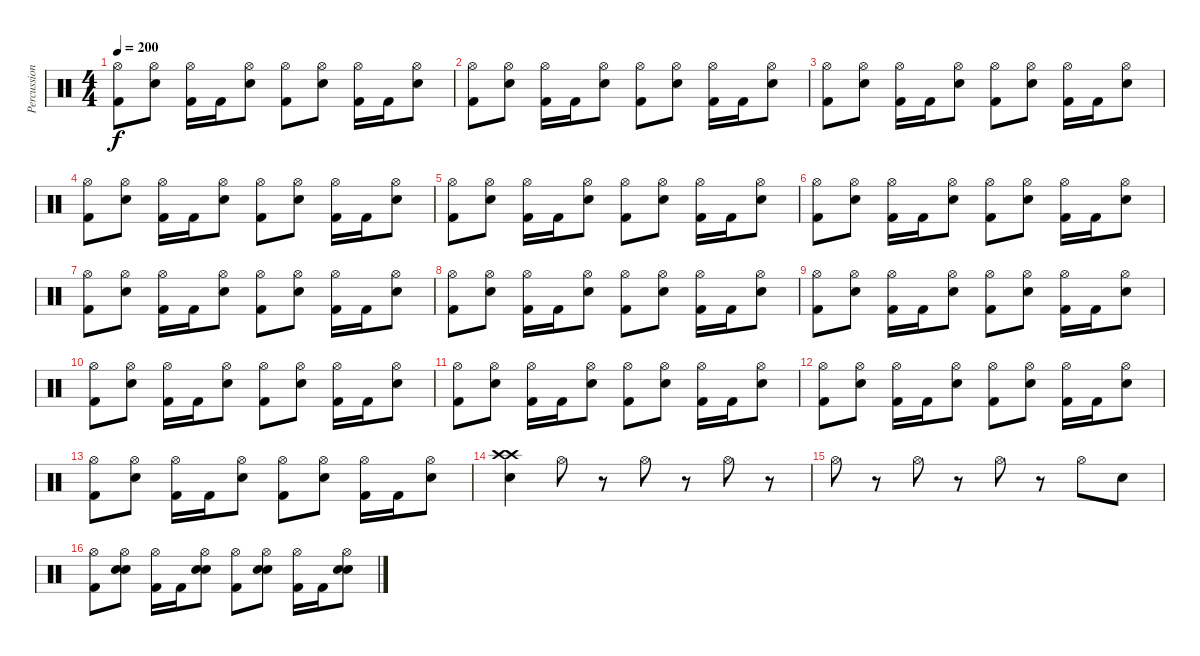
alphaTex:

\track ("Percussion" "Percussion") {instrument percussion}
\staff {score}
\articulation defaults
\ts (4 4)
\tempo 200
\clef neutral
\ks c
("Hi-Hat (open)" "Kick (hit) 2").8{dy f} ("Hi-Hat (open)" "Electric Snare (hit)").8 ("Hi-Hat (open)" "Kick (hit) 2").16 "Kick (hit) 2".16 ("Hi-Hat (open)" "Electric Snare (hit)").8 ("Hi-Hat (open)" "Kick (hit) 2").8 ("Hi-Hat (open)" "Electric Snare (hit)").8 ("Hi-Hat (open)" "Kick (hit) 2").16 "Kick (hit) 2".16 ("Hi-Hat (open)" "Electric Snare (hit)").8 |
("Hi-Hat (open)" "Kick (hit) 2").8 ("Hi-Hat (open)" "Electric Snare (hit)").8 ("Hi-Hat (open)" "Kick (hit) 2").16 "Kick (hit) 2".16 ("Hi-Hat (open)" "Electric Snare (hit)").8 ("Hi-Hat (open)" "Kick (hit) 2").8 ("Hi-Hat (open)" "Electric Snare (hit)").8 ("Hi-Hat (open)" "Kick (hit) 2").16 "Kick (hit) 2".16 ("Hi-Hat (open)" "Electric Snare (hit)").8 |
("Hi-Hat (open)" "Kick (hit) 2").8 ("Hi-Hat (open)" "Electric Snare (hit)").8 ("Hi-Hat (open)" "Kick (hit) 2").16 "Kick (hit) 2".16 ("Hi-Hat (open)" "Electric Snare (hit)").8 ("Hi-Hat (open)" "Kick (hit) 2").8 ("Hi-Hat (open)" "Electric Snare (hit)").8 ("Hi-Hat (open)" "Kick (hit) 2").16 "Kick (hit) 2".16 ("Hi-Hat (open)" "Electric Snare (hit)").8 |
("Hi-Hat (open)" "Kick (hit) 2").8 ("Hi-Hat (open)" "Electric Snare (hit)").8 ("Hi-Hat (open)" "Kick (hit) 2").16 "Kick (hit) 2".16 ("Hi-Hat (open)" "Electric Snare (hit)").8 ("Hi-Hat (open)" "Kick (hit) 2").8 ("Hi-Hat (open)" "Electric Snare (hit)").8 ("Hi-Hat (open)" "Kick (hit) 2").16 "Kick (hit) 2".16 ("Hi-Hat (open)" "Electric Snare (hit)").8 |
("Hi-Hat (open)" "Kick (hit) 2").8 ("Hi-Hat (open)" "Electric Snare (hit)").8 ("Hi-Hat (open)" "Kick (hit) 2").16 "Kick (hit) 2".16 ("Hi-Hat (open)" "Electric Snare (hit)").8 ("Hi-Hat (open)" "Kick (hit) 2").8 ("Hi-Hat (open)" "Electric Snare (hit)").8 ("Hi-Hat (open)" "Kick (hit) 2").16 "Kick (hit) 2".16 ("Hi-Hat (open)" "Electric Snare (hit)").8 |
("Hi-Hat (open)" "Kick (hit) 2").8 ("Hi-Hat (open)" "Electric Snare (hit)").8 ("Hi-Hat (open)" "Kick (hit) 2").16 "Kick (hit) 2".16 ("Hi-Hat (open)" "Electric Snare (hit)").8 ("Hi-Hat (open)" "Kick (hit) 2").8 ("Hi-Hat (open)" "Electric Snare (hit)").8 ("Hi-Hat (open)" "Kick (hit) 2").16 "Kick (hit) 2".16 ("Hi-Hat (open)" "Electric Snare (hit)").8 |
("Hi-Hat (open)" "Kick (hit) 2").8 ("Hi-Hat (open)" "Electric Snare (hit)").8 ("Hi-Hat (open)" "Kick (hit) 2").16 "Kick (hit) 2".16 ("Hi-Hat (open)" "Electric Snare (hit)").8 ("Hi-Hat (open)" "Kick (hit) 2").8 ("Hi-Hat (open)" "Electric Snare (hit)").8 ("Hi-Hat (open)" "Kick (hit) 2").16 "Kick (hit) 2".16 ("Hi-Hat (open)" "Electric Snare (hit)").8 |
("Hi-Hat (open)" "Kick (hit) 2").8 ("Hi-Hat (open)" "Electric Snare (hit)").8 ("Hi-Hat (open)" "Kick (hit) 2").16 "Kick (hit) 2".16 ("Hi-Hat (open)" "Electric Snare (hit)").8 ("Hi-Hat (open)" "Kick (hit) 2").8 ("Hi-Hat (open)" "Electric Snare (hit)").8 ("Hi-Hat (open)" "Kick (hit) 2").16 "Kick (hit) 2".16 ("Hi-Hat (open)" "Electric Snare (hit)").8 |
("Hi-Hat (open)" "Kick (hit) 2").8 ("Hi-Hat (open)" "Electric Snare (hit)").8 ("Hi-Hat (open)" "Kick (hit) 2").16 "Kick (hit) 2".16 ("Hi-Hat (open)" "Electric Snare (hit)").8 ("Hi-Hat (open)" "Kick (hit) 2").8 ("Hi-Hat (open)" "Electric Snare (hit)").8 ("Hi-Hat (open)" "Kick (hit) 2").16 "Kick (hit) 2".16 ("Hi-Hat (open)" "Electric Snare (hit)").8 |
("Hi-Hat (open)" "Kick (hit) 2").8 ("Hi-Hat (open)" "Electric Snare (hit)").8 ("Hi-Hat (open)" "Kick (hit) 2").16 "Kick (hit) 2".16 ("Hi-Hat (open)" "Electric Snare (hit)").8 ("Hi-Hat (open)" "Kick (hit) 2").8 ("Hi-Hat (open)" "Electric Snare (hit)").8 ("Hi-Hat (open)" "Kick (hit) 2").16 "Kick (hit) 2".16 ("Hi-Hat (open)" "Electric Snare (hit)").8 |
("Hi-Hat (open)" "Kick (hit) 2").8 ("Hi-Hat (open)" "Electric Snare (hit)").8 ("Hi-Hat (open)" "Kick (hit) 2").16 "Kick (hit) 2".16 ("Hi-Hat (open)" "Electric Snare (hit)").8 ("Hi-Hat (open)" "Kick (hit) 2").8 ("Hi-Hat (open)" "Electric Snare (hit)").8 ("Hi-Hat (open)" "Kick (hit) 2").16 "Kick (hit) 2".16 ("Hi-Hat (open)" "Electric Snare (hit)").8 |
("Hi-Hat (open)" "Kick (hit) 2").8 ("Hi-Hat (open)" "Electric Snare (hit)").8 ("Hi-Hat (open)" "Kick (hit) 2").16 "Kick (hit) 2".16 ("Hi-Hat (open)" "Electric Snare (hit)").8 ("Hi-Hat (open)" "Kick (hit) 2").8 ("Hi-Hat (open)" "Electric Snare (hit)").8 ("Hi-Hat (open)" "Kick (hit) 2").16 "Kick (hit) 2".16 ("Hi-Hat (open)" "Electric Snare (hit)").8 |
("Hi-Hat (open)" "Kick (hit) 2").8 ("Hi-Hat (open)" "Electric Snare (hit)").8 ("Hi-Hat (open)" "Kick (hit) 2").16 "Kick (hit) 2".16 ("Hi-Hat (open)" "Electric Snare (hit)").8 ("Hi-Hat (open)" "Kick (hit) 2").8 ("Hi-Hat (open)" "Electric Snare (hit)").8 ("Hi-Hat (open)" "Kick (hit) 2").16 "Kick (hit) 2".16 ("Hi-Hat (open)" "Electric Snare (hit)").8 |
("Crash high (hit)" "Crash high (hit)" "Electric Snare (hit)").4 "Hi-Hat (open)".8 r.8 "Hi-Hat (open)".8 r.8 "Hi-Hat (open)".8 r.8 |
"Hi-Hat (open)".8 r.8 "Hi-Hat (open)".8 r.8 "Hi-Hat (open)".8 r.8 "Hi-Hat (open)".8 "Electric Snare (hit)".8 |
("Hi-Hat (open)" "Kick (hit) 2").8 ("Hi-Hat (open)" "Electric Snare (hit)" "Electric Snare (hit)").8 ("Hi-Hat (open)" "Kick (hit) 2").16 "Kick (hit) 2".16 ("Hi-Hat (open)" "Electric Snare (hit)" "Electric Snare (hit)").8 ("Hi-Hat (open)" "Kick (hit) 2").8 ("Hi-Hat (open)" "Electric Snare (hit)" "Electric Snare (hit)").8 ("Hi-Hat (open)" "Kick (hit) 2").16 "Kick (hit) 2".16 ("Hi-Hat (open)" "Electric Snare (hit)" "Electric Snare (hit)").8
